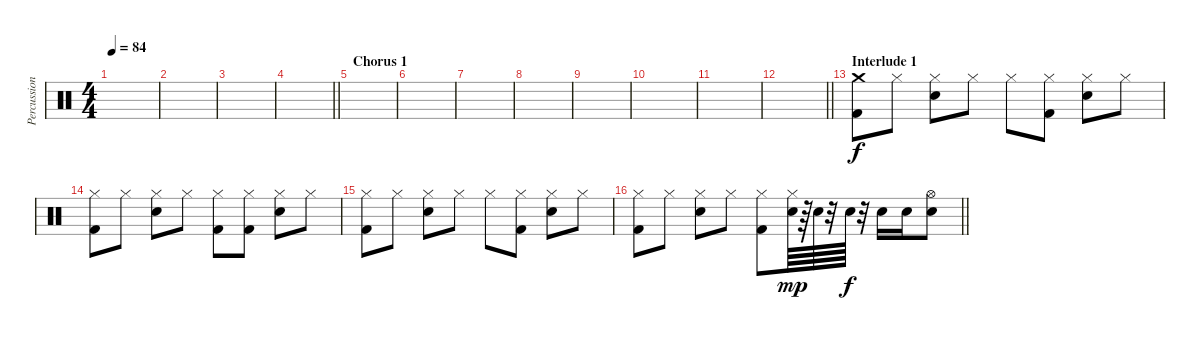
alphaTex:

\track ("Percussion" "Percussion") {instrument percussion}
\staff {score}
\articulation defaults
\ts (4 4)
\tempo 84
\clef neutral
\ks c
|
|
|
\barLineRight lightlight
|
\section ("" "Chorus 1")
|
|
|
|
|
|
|
\barLineRight lightlight
|
\section ("" "Interlude 1")
("Crash medium (hit)" "Kick (hit) 2").8 "Hi-Hat (closed)".8 ("Hi-Hat (closed)" "Electric Snare (hit)").8 "Hi-Hat (closed)".8 "Hi-Hat (closed)".8 ("Hi-Hat (closed)" "Kick (hit) 2").8 ("Hi-Hat (closed)" "Electric Snare (hit)").8 "Hi-Hat (closed)".8 |
("Hi-Hat (closed)" "Kick (hit) 2").8 "Hi-Hat (closed)".8 ("Hi-Hat (closed)" "Electric Snare (hit)").8 "Hi-Hat (closed)".8 ("Hi-Hat (closed)" "Kick (hit) 2").8 ("Hi-Hat (closed)" "Kick (hit) 2").8 ("Hi-Hat (closed)" "Electric Snare (hit)").8 "Hi-Hat (closed)".8 |
("Hi-Hat (closed)" "Kick (hit) 2").8 "Hi-Hat (closed)".8 ("Hi-Hat (closed)" "Electric Snare (hit)").8 "Hi-Hat (closed)".8 "Hi-Hat (closed)".8 ("Hi-Hat (closed)" "Kick (hit) 2").8 ("Hi-Hat (closed)" "Electric Snare (hit)").8 "Hi-Hat (closed)".8 |
\barLineRight lightlight
("Hi-Hat (closed)" "Kick (hit) 2").8 "Hi-Hat (closed)".8 ("Hi-Hat (closed)" "Electric Snare (hit)").8 "Hi-Hat (closed)".8 ("Hi-Hat (closed)" "Kick (hit) 2").8 ("Hi-Hat (closed)" "Snare (hit) 2").64{dy mp} r.64 "Snare (hit) 2".64 r.32 "Snare (hit) 2".64{dy f} r.32 "Electric Snare (hit)".16 "Electric Snare (hit)".16 ("Hi-Hat (open)" "Electric Snare (hit)").8
